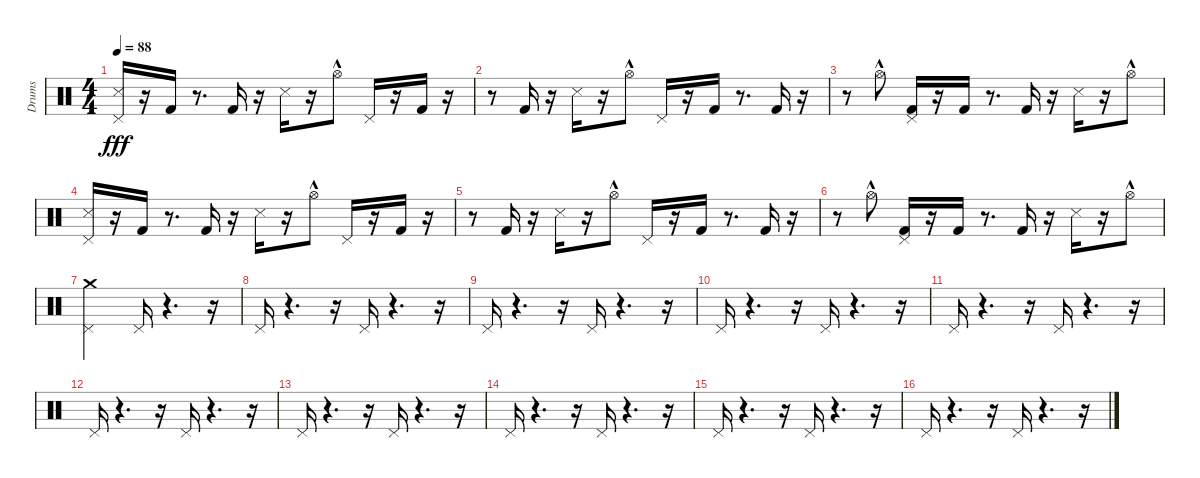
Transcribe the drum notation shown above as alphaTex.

\track ("Drums" "Drums") {instrument percussion}
\staff {score}
\articulation defaults
\ts (4 4)
\tempo 88
\clef neutral
\ks c
("Pedal Hi-Hat (hit)" "Snare (side stick) 3").16{dy fff} r.16 "Kick (hit) 2".16 r.8{d} "Kick (hit) 2".16 r.16 "Snare (side stick) 3".16 r.16 "Hi-Hat (open)"{hac}.8 "Pedal Hi-Hat (hit)".16 r.16 "Kick (hit) 2".16 r.16 |
r.8 "Kick (hit) 2".16 r.16 "Snare (side stick) 3".16 r.16 "Hi-Hat (open)"{hac}.8 "Pedal Hi-Hat (hit)".16 r.16 "Kick (hit) 2".16 r.8{d} "Kick (hit) 2".16 r.16 |
r.8 "Hi-Hat (open)"{hac}.8 ("Pedal Hi-Hat (hit)" "Kick (hit) 2").16 r.16 "Kick (hit) 2".16 r.8{d} "Kick (hit) 2".16 r.16 "Snare (side stick) 3".16 r.16 "Hi-Hat (open)"{hac}.8 |
("Pedal Hi-Hat (hit)" "Snare (side stick) 3").16 r.16 "Kick (hit) 2".16 r.8{d} "Kick (hit) 2".16 r.16 "Snare (side stick) 3".16 r.16 "Hi-Hat (open)"{hac}.8 "Pedal Hi-Hat (hit)".16 r.16 "Kick (hit) 2".16 r.16 |
r.8 "Kick (hit) 2".16 r.16 "Snare (side stick) 3".16 r.16 "Hi-Hat (open)"{hac}.8 "Pedal Hi-Hat (hit)".16 r.16 "Kick (hit) 2".16 r.8{d} "Kick (hit) 2".16 r.16 |
r.8 "Hi-Hat (open)"{hac}.8 ("Pedal Hi-Hat (hit)" "Kick (hit) 2").16 r.16 "Kick (hit) 2".16 r.8{d} "Kick (hit) 2".16 r.16 "Snare (side stick) 3".16 r.16 "Hi-Hat (open)"{hac}.8 |
("Pedal Hi-Hat (hit)" "Crash medium (hit)").2 "Pedal Hi-Hat (hit)".16 r.4{d} r.16 |
"Pedal Hi-Hat (hit)".16 r.4{d} r.16 "Pedal Hi-Hat (hit)".16 r.4{d} r.16 |
"Pedal Hi-Hat (hit)".16 r.4{d} r.16 "Pedal Hi-Hat (hit)".16 r.4{d} r.16 |
"Pedal Hi-Hat (hit)".16 r.4{d} r.16 "Pedal Hi-Hat (hit)".16 r.4{d} r.16 |
"Pedal Hi-Hat (hit)".16 r.4{d} r.16 "Pedal Hi-Hat (hit)".16 r.4{d} r.16 |
"Pedal Hi-Hat (hit)".16 r.4{d} r.16 "Pedal Hi-Hat (hit)".16 r.4{d} r.16 |
"Pedal Hi-Hat (hit)".16 r.4{d} r.16 "Pedal Hi-Hat (hit)".16 r.4{d} r.16 |
"Pedal Hi-Hat (hit)".16 r.4{d} r.16 "Pedal Hi-Hat (hit)".16 r.4{d} r.16 |
"Pedal Hi-Hat (hit)".16 r.4{d} r.16 "Pedal Hi-Hat (hit)".16 r.4{d} r.16 |
"Pedal Hi-Hat (hit)".16 r.4{d} r.16 "Pedal Hi-Hat (hit)".16 r.4{d} r.16
